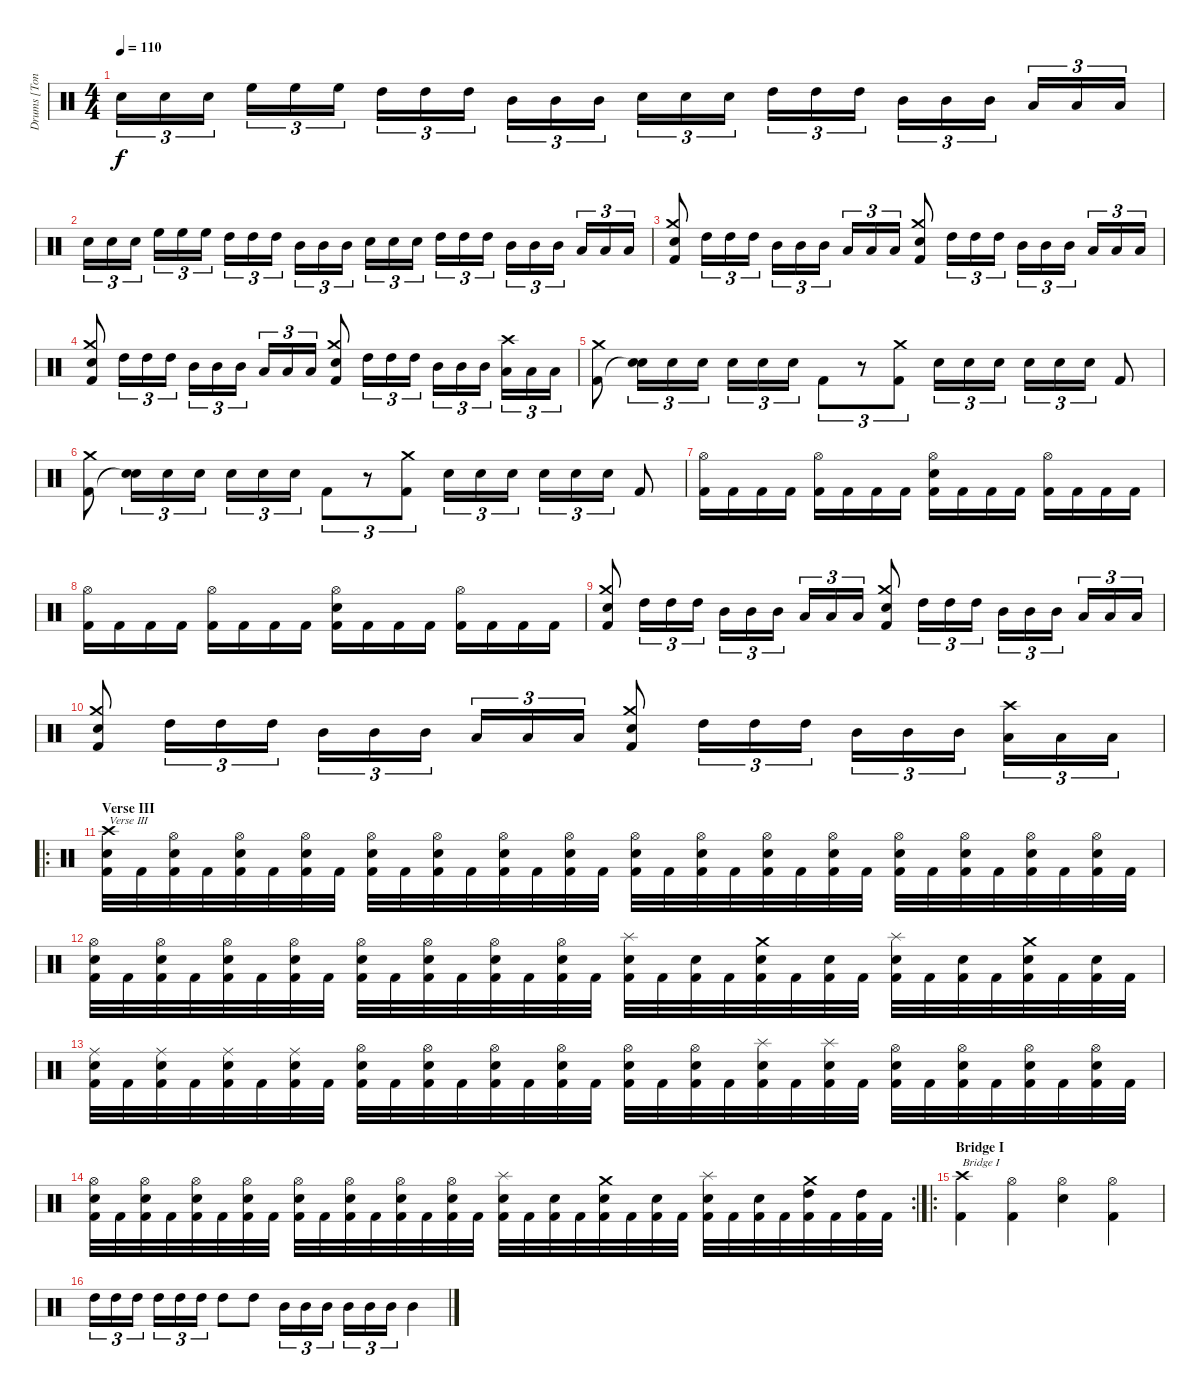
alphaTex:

\track ("Drums [Tony Laureano]" "Drums [Ton") {instrument percussion}
\staff {score}
\articulation defaults
\ts (4 4)
\tempo 110
\clef neutral
\ks c "Electric Snare (hit)".16{tu (3 2) dy f} "Electric Snare (hit)".16{tu (3 2)} "Electric Snare (hit)".16{tu (3 2)} "High Floor Tom (hit)".16{tu (3 2)} "High Floor Tom (hit)".16{tu (3 2)} "High Floor Tom (hit)".16{tu (3 2)} "High Tom (hit)".16{tu (3 2)} "High Tom (hit)".16{tu (3 2)} "High Tom (hit)".16{tu (3 2)} "Mid Tom (hit)".16{tu (3 2)} "Mid Tom (hit)".16{tu (3 2)} "Mid Tom (hit)".16{tu (3 2)} "Electric Snare (hit)".16{tu (3 2)} "Electric Snare (hit)".16{tu (3 2)} "Electric Snare (hit)".16{tu (3 2)} "High Tom (hit)".16{tu (3 2)} "High Tom (hit)".16{tu (3 2)} "High Tom (hit)".16{tu (3 2)} "Mid Tom (hit)".16{tu (3 2)} "Mid Tom (hit)".16{tu (3 2)} "Mid Tom (hit)".16{tu (3 2)} "Low Tom (hit)".16{tu (3 2)} "Low Tom (hit)".16{tu (3 2)} "Low Tom (hit)".16{tu (3 2)}
|
"Electric Snare (hit)".16{tu (3 2)} "Electric Snare (hit)".16{tu (3 2)} "Electric Snare (hit)".16{tu (3 2)} "High Floor Tom (hit)".16{tu (3 2)} "High Floor Tom (hit)".16{tu (3 2)} "High Floor Tom (hit)".16{tu (3 2)} "High Tom (hit)".16{tu (3 2)} "High Tom (hit)".16{tu (3 2)} "High Tom (hit)".16{tu (3 2)} "Mid Tom (hit)".16{tu (3 2)} "Mid Tom (hit)".16{tu (3 2)} "Mid Tom (hit)".16{tu (3 2)} "Electric Snare (hit)".16{tu (3 2)} "Electric Snare (hit)".16{tu (3 2)} "Electric Snare (hit)".16{tu (3 2)} "High Tom (hit)".16{tu (3 2)} "High Tom (hit)".16{tu (3 2)} "High Tom (hit)".16{tu (3 2)} "Mid Tom (hit)".16{tu (3 2)} "Mid Tom (hit)".16{tu (3 2)} "Mid Tom (hit)".16{tu (3 2)} "Low Tom (hit)".16{tu (3 2)} "Low Tom (hit)".16{tu (3 2)} "Low Tom (hit)".16{tu (3 2)} |
("Crash medium (hit)" "Electric Snare (hit)" "Kick (hit) 2").8 "High Tom (hit)".16{tu (3 2)} "High Tom (hit)".16{tu (3 2)} "High Tom (hit)".16{tu (3 2)} "Mid Tom (hit)".16{tu (3 2)} "Mid Tom (hit)".16{tu (3 2)} "Mid Tom (hit)".16{tu (3 2)} "Low Tom (hit)".16{tu (3 2)} "Low Tom (hit)".16{tu (3 2)} "Low Tom (hit)".16{tu (3 2)} ("Crash medium (hit)" "Electric Snare (hit)" "Kick (hit) 2").8 "High Tom (hit)".16{tu (3 2)} "High Tom (hit)".16{tu (3 2)} "High Tom (hit)".16{tu (3 2)} "Mid Tom (hit)".16{tu (3 2)} "Mid Tom (hit)".16{tu (3 2)} "Mid Tom (hit)".16{tu (3 2)} "Low Tom (hit)".16{tu (3 2)} "Low Tom (hit)".16{tu (3 2)} "Low Tom (hit)".16{tu (3 2)} |
("Crash medium (hit)" "Electric Snare (hit)" "Kick (hit) 2").8 "High Tom (hit)".16{tu (3 2)} "High Tom (hit)".16{tu (3 2)} "High Tom (hit)".16{tu (3 2)} "Mid Tom (hit)".16{tu (3 2)} "Mid Tom (hit)".16{tu (3 2)} "Mid Tom (hit)".16{tu (3 2)} "Low Tom (hit)".16{tu (3 2)} "Low Tom (hit)".16{tu (3 2)} "Low Tom (hit)".16{tu (3 2)} ("Crash medium (hit)" "Electric Snare (hit)" "Kick (hit) 2").8 "High Tom (hit)".16{tu (3 2)} "High Tom (hit)".16{tu (3 2)} "High Tom (hit)".16{tu (3 2)} "Mid Tom (hit)".16{tu (3 2)} "Mid Tom (hit)".16{tu (3 2)} "Mid Tom (hit)".16{tu (3 2)} ("Crash high (hit)" "Low Tom (hit)").16{tu (3 2)} "Low Tom (hit)".16{tu (3 2)} "Low Tom (hit)".16{tu (3 2)} |
("Crash medium (hit)" "Kick (hit) 2").8 ("Electric Snare (hit)" "Snare (hit)"{t}).16{tu (3 2)} "Electric Snare (hit)".16{tu (3 2)} "Electric Snare (hit)".16{tu (3 2)} "Electric Snare (hit)".16{tu (3 2)} "Electric Snare (hit)".16{tu (3 2)} "Electric Snare (hit)".16{tu (3 2)} "Kick (hit) 2".8{tu (3 2)} r.8{tu (3 2)} ("Crash medium (hit)" "Kick (hit) 2").8{tu (3 2)} "Electric Snare (hit)".16{tu (3 2)} "Electric Snare (hit)".16{tu (3 2)} "Electric Snare (hit)".16{tu (3 2)} "Electric Snare (hit)".16{tu (3 2)} "Electric Snare (hit)".16{tu (3 2)} "Electric Snare (hit)".16{tu (3 2)} "Kick (hit) 2".8 |
("Crash medium (hit)" "Kick (hit) 2").8 ("Electric Snare (hit)" "Snare (hit)"{t}).16{tu (3 2)} "Electric Snare (hit)".16{tu (3 2)} "Electric Snare (hit)".16{tu (3 2)} "Electric Snare (hit)".16{tu (3 2)} "Electric Snare (hit)".16{tu (3 2)} "Electric Snare (hit)".16{tu (3 2)} "Kick (hit) 2".8{tu (3 2)} r.8{tu (3 2)} ("Crash medium (hit)" "Kick (hit) 2").8{tu (3 2)} "Electric Snare (hit)".16{tu (3 2)} "Electric Snare (hit)".16{tu (3 2)} "Electric Snare (hit)".16{tu (3 2)} "Electric Snare (hit)".16{tu (3 2)} "Electric Snare (hit)".16{tu (3 2)} "Electric Snare (hit)".16{tu (3 2)} "Kick (hit) 2".8 |
("Hi-Hat (open)" "Kick (hit) 2").16 "Kick (hit) 2".16 "Kick (hit) 2".16 "Kick (hit) 2".16 ("Hi-Hat (open)" "Kick (hit) 2").16 "Kick (hit) 2".16 "Kick (hit) 2".16 "Kick (hit) 2".16 ("Hi-Hat (open)" "Electric Snare (hit)" "Kick (hit) 2").16 "Kick (hit) 2".16 "Kick (hit) 2".16 "Kick (hit) 2".16 ("Hi-Hat (open)" "Kick (hit) 2").16 "Kick (hit) 2".16 "Kick (hit) 2".16 "Kick (hit) 2".16 |
("Hi-Hat (open)" "Kick (hit) 2").16 "Kick (hit) 2".16 "Kick (hit) 2".16 "Kick (hit) 2".16 ("Hi-Hat (open)" "Kick (hit) 2").16 "Kick (hit) 2".16 "Kick (hit) 2".16 "Kick (hit) 2".16 ("Hi-Hat (open)" "Electric Snare (hit)" "Kick (hit) 2").16 "Kick (hit) 2".16 "Kick (hit) 2".16 "Kick (hit) 2".16 ("Hi-Hat (open)" "Kick (hit) 2").16 "Kick (hit) 2".16 "Kick (hit) 2".16 "Kick (hit) 2".16 |
("Crash medium (hit)" "Electric Snare (hit)" "Kick (hit) 2").8 "High Tom (hit)".16{tu (3 2)} "High Tom (hit)".16{tu (3 2)} "High Tom (hit)".16{tu (3 2)} "Mid Tom (hit)".16{tu (3 2)} "Mid Tom (hit)".16{tu (3 2)} "Mid Tom (hit)".16{tu (3 2)} "Low Tom (hit)".16{tu (3 2)} "Low Tom (hit)".16{tu (3 2)} "Low Tom (hit)".16{tu (3 2)} ("Crash medium (hit)" "Electric Snare (hit)" "Kick (hit) 2").8 "High Tom (hit)".16{tu (3 2)} "High Tom (hit)".16{tu (3 2)} "High Tom (hit)".16{tu (3 2)} "Mid Tom (hit)".16{tu (3 2)} "Mid Tom (hit)".16{tu (3 2)} "Mid Tom (hit)".16{tu (3 2)} "Low Tom (hit)".16{tu (3 2)} "Low Tom (hit)".16{tu (3 2)} "Low Tom (hit)".16{tu (3 2)} |
("Crash medium (hit)" "Electric Snare (hit)" "Kick (hit) 2").8 "High Tom (hit)".16{tu (3 2)} "High Tom (hit)".16{tu (3 2)} "High Tom (hit)".16{tu (3 2)} "Mid Tom (hit)".16{tu (3 2)} "Mid Tom (hit)".16{tu (3 2)} "Mid Tom (hit)".16{tu (3 2)} "Low Tom (hit)".16{tu (3 2)} "Low Tom (hit)".16{tu (3 2)} "Low Tom (hit)".16{tu (3 2)} ("Crash medium (hit)" "Electric Snare (hit)" "Kick (hit) 2").8 "High Tom (hit)".16{tu (3 2)} "High Tom (hit)".16{tu (3 2)} "High Tom (hit)".16{tu (3 2)} "Mid Tom (hit)".16{tu (3 2)} "Mid Tom (hit)".16{tu (3 2)} "Mid Tom (hit)".16{tu (3 2)} ("Crash high (hit)" "Low Tom (hit)").16{tu (3 2)} "Low Tom (hit)".16{tu (3 2)} "Low Tom (hit)".16{tu (3 2)} |
\ro
\section ("" "Verse III")
("Crash high (hit)" "Electric Snare (hit)" "Kick (hit) 2").32{txt "Verse III"} "Kick (hit) 2".32 ("Hi-Hat (open)" "Electric Snare (hit)" "Kick (hit) 2").32 "Kick (hit) 2".32 ("Hi-Hat (open)" "Electric Snare (hit)" "Kick (hit) 2").32 "Kick (hit) 2".32 ("Hi-Hat (open)" "Electric Snare (hit)" "Kick (hit) 2").32 "Kick (hit) 2".32 ("Hi-Hat (open)" "Electric Snare (hit)" "Kick (hit) 2").32 "Kick (hit) 2".32 ("Hi-Hat (open)" "Electric Snare (hit)" "Kick (hit) 2").32 "Kick (hit) 2".32 ("Hi-Hat (open)" "Electric Snare (hit)" "Kick (hit) 2").32 "Kick (hit) 2".32 ("Hi-Hat (open)" "Electric Snare (hit)" "Kick (hit) 2").32 "Kick (hit) 2".32 ("Hi-Hat (open)" "Electric Snare (hit)" "Kick (hit) 2").32 "Kick (hit) 2".32 ("Hi-Hat (open)" "Electric Snare (hit)" "Kick (hit) 2").32 "Kick (hit) 2".32 ("Hi-Hat (open)" "Electric Snare (hit)" "Kick (hit) 2").32 "Kick (hit) 2".32 ("Hi-Hat (open)" "Electric Snare (hit)" "Kick (hit) 2").32 "Kick (hit) 2".32 ("Hi-Hat (open)" "Electric Snare (hit)" "Kick (hit) 2").32 "Kick (hit) 2".32 ("Hi-Hat (open)" "Electric Snare (hit)" "Kick (hit) 2").32 "Kick (hit) 2".32 ("Hi-Hat (open)" "Electric Snare (hit)" "Kick (hit) 2").32 "Kick (hit) 2".32 ("Hi-Hat (open)" "Electric Snare (hit)" "Kick (hit) 2").32 "Kick (hit) 2".32 |
("Hi-Hat (open)" "Electric Snare (hit)" "Kick (hit) 2").32 "Kick (hit) 2".32 ("Hi-Hat (open)" "Electric Snare (hit)" "Kick (hit) 2").32 "Kick (hit) 2".32 ("Hi-Hat (open)" "Electric Snare (hit)" "Kick (hit) 2").32 "Kick (hit) 2".32 ("Hi-Hat (open)" "Electric Snare (hit)" "Kick (hit) 2").32 "Kick (hit) 2".32 ("Hi-Hat (open)" "Electric Snare (hit)" "Kick (hit) 2").32 "Kick (hit) 2".32 ("Hi-Hat (open)" "Electric Snare (hit)" "Kick (hit) 2").32 "Kick (hit) 2".32 ("Hi-Hat (open)" "Electric Snare (hit)" "Kick (hit) 2").32 "Kick (hit) 2".32 ("Hi-Hat (open)" "Electric Snare (hit)" "Kick (hit) 2").32 "Kick (hit) 2".32 ("Splash (hit)" "Electric Snare (hit)" "Kick (hit) 2").32 "Kick (hit) 2".32 ("Electric Snare (hit)" "Kick (hit) 2").32 "Kick (hit) 2".32 ("Crash medium (hit)" "Electric Snare (hit)" "Kick (hit) 2").32 "Kick (hit) 2".32 ("Electric Snare (hit)" "Kick (hit) 2").32 "Kick (hit) 2".32 ("Splash (hit)" "Electric Snare (hit)" "Kick (hit) 2").32 "Kick (hit) 2".32 ("Electric Snare (hit)" "Kick (hit) 2").32 "Kick (hit) 2".32 ("Crash medium (hit)" "Electric Snare (hit)" "Kick (hit) 2").32 "Kick (hit) 2".32 ("Electric Snare (hit)" "Kick (hit) 2").32 "Kick (hit) 2".32 |
("Ride (middle)" "Electric Snare (hit)" "Kick (hit) 2").32 "Kick (hit) 2".32 ("Ride (middle)" "Electric Snare (hit)" "Kick (hit) 2").32 "Kick (hit) 2".32 ("Ride (middle)" "Electric Snare (hit)" "Kick (hit) 2").32 "Kick (hit) 2".32 ("Ride (middle)" "Electric Snare (hit)" "Kick (hit) 2").32 "Kick (hit) 2".32 ("Hi-Hat (open)" "Electric Snare (hit)" "Kick (hit) 2").32 "Kick (hit) 2".32 ("Hi-Hat (open)" "Electric Snare (hit)" "Kick (hit) 2").32 "Kick (hit) 2".32 ("Hi-Hat (open)" "Electric Snare (hit)" "Kick (hit) 2").32 "Kick (hit) 2".32 ("Hi-Hat (open)" "Electric Snare (hit)" "Kick (hit) 2").32 "Kick (hit) 2".32 ("Hi-Hat (open)" "Electric Snare (hit)" "Kick (hit) 2").32 "Kick (hit) 2".32 ("Hi-Hat (open)" "Electric Snare (hit)" "Kick (hit) 2").32 "Kick (hit) 2".32 ("Splash (hit)" "Electric Snare (hit)" "Kick (hit) 2").32 "Kick (hit) 2".32 ("Splash (hit)" "Electric Snare (hit)" "Kick (hit) 2").32 "Kick (hit) 2".32 ("Hi-Hat (open)" "Electric Snare (hit)" "Kick (hit) 2").32 "Kick (hit) 2".32 ("Hi-Hat (open)" "Electric Snare (hit)" "Kick (hit) 2").32 "Kick (hit) 2".32 ("Hi-Hat (open)" "Electric Snare (hit)" "Kick (hit) 2").32 "Kick (hit) 2".32 ("Hi-Hat (open)" "Electric Snare (hit)" "Kick (hit) 2").32 "Kick (hit) 2".32 |
\rc 2
("Hi-Hat (open)" "Electric Snare (hit)" "Kick (hit) 2").32 "Kick (hit) 2".32 ("Hi-Hat (open)" "Electric Snare (hit)" "Kick (hit) 2").32 "Kick (hit) 2".32 ("Hi-Hat (open)" "Electric Snare (hit)" "Kick (hit) 2").32 "Kick (hit) 2".32 ("Hi-Hat (open)" "Electric Snare (hit)" "Kick (hit) 2").32 "Kick (hit) 2".32 ("Hi-Hat (open)" "Electric Snare (hit)" "Kick (hit) 2").32 "Kick (hit) 2".32 ("Hi-Hat (open)" "Electric Snare (hit)" "Kick (hit) 2").32 "Kick (hit) 2".32 ("Hi-Hat (open)" "Electric Snare (hit)" "Kick (hit) 2").32 "Kick (hit) 2".32 ("Hi-Hat (open)" "Electric Snare (hit)" "Kick (hit) 2").32 "Kick (hit) 2".32 ("Splash (hit)" "Electric Snare (hit)" "Kick (hit) 2").32 "Kick (hit) 2".32 ("Electric Snare (hit)" "Kick (hit) 2").32 "Kick (hit) 2".32 ("Crash medium (hit)" "Electric Snare (hit)" "Kick (hit) 2").32 "Kick (hit) 2".32 ("Electric Snare (hit)" "Kick (hit) 2").32 "Kick (hit) 2".32 ("Splash (hit)" "Electric Snare (hit)" "Kick (hit) 2").32 "Kick (hit) 2".32 ("Electric Snare (hit)" "Kick (hit) 2").32 "Kick (hit) 2".32 ("Crash medium (hit)" "High Tom (hit)" "Kick (hit) 2").32 "Kick (hit) 2".32 ("High Tom (hit)" "Kick (hit) 2").32 "Kick (hit) 2".32 |
\ro
\section ("" "Bridge I")
("Crash high (hit)" "Kick (hit) 2").4{txt "Bridge I"} ("Hi-Hat (open)" "Kick (hit) 2").4 ("Hi-Hat (open)" "Electric Snare (hit)").4 ("Hi-Hat (open)" "Kick (hit) 2").4 |
"High Tom (hit)".16{tu (3 2)} "High Tom (hit)".16{tu (3 2)} "High Tom (hit)".16{tu (3 2)} "High Tom (hit)".16{tu (3 2)} "High Tom (hit)".16{tu (3 2)} "High Tom (hit)".16{tu (3 2)} "High Tom (hit)".8 "High Tom (hit)".8 "Mid Tom (hit)".16{tu (3 2)} "Mid Tom (hit)".16{tu (3 2)} "Mid Tom (hit)".16{tu (3 2)} "Mid Tom (hit)".16{tu (3 2)} "Mid Tom (hit)".16{tu (3 2)} "Mid Tom (hit)".16{tu (3 2)} "Mid Tom (hit)".4
